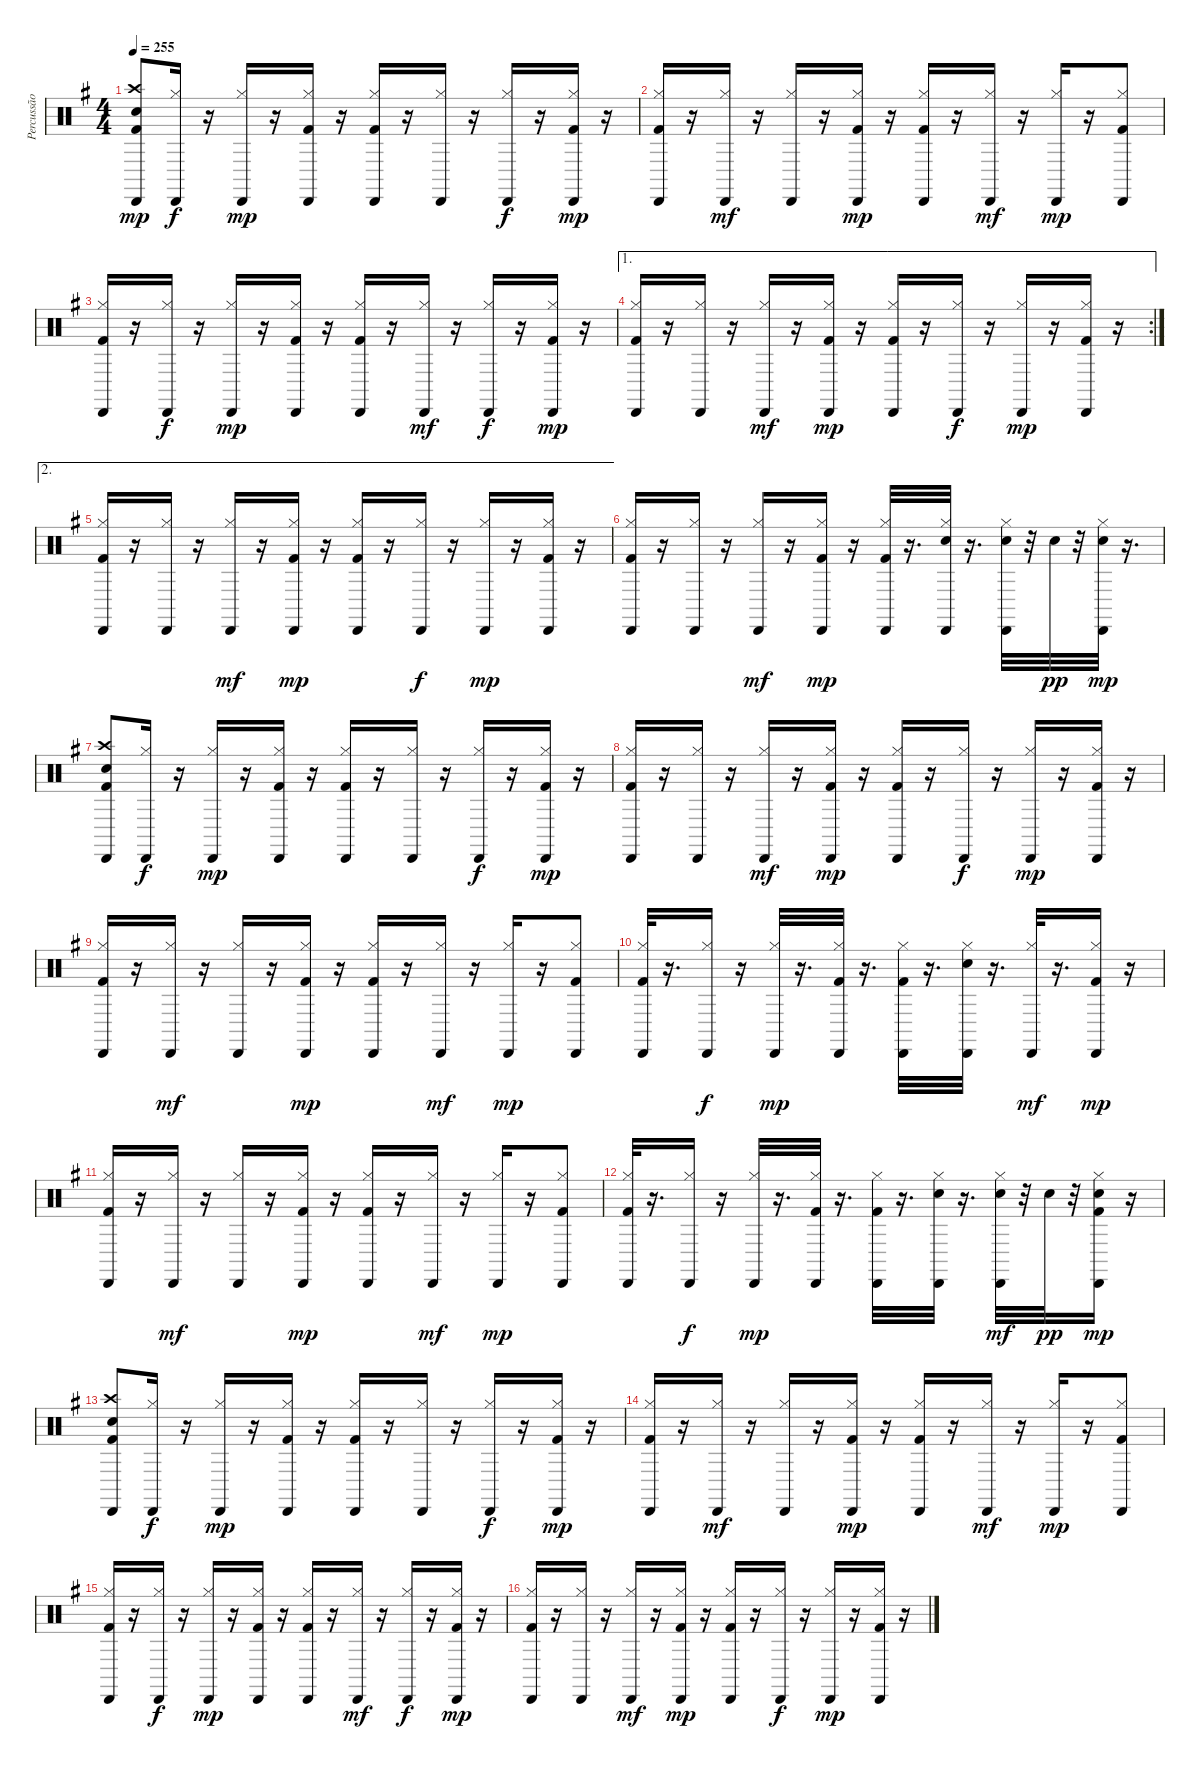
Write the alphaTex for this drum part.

\track ("Percussão" "Percussão") {instrument percussion}
\staff {score}
\articulation defaults
\ts (4 4)
\tempo 255
\clef neutral
\ks g
("Electric Snare (hit)" "Crash high (hit)" "Kick (hit) 2" "Cabasa (hit)").8{dy mp} ("Hi-Hat (closed)" "Cabasa (hit)").16{dy f} r.16 ("Hi-Hat (closed)" "Cabasa (hit)").16{dy mp} r.16 ("Kick (hit) 2" "Hi-Hat (closed)" "Cabasa (hit)").16 r.16 ("Kick (hit) 2" "Hi-Hat (closed)" "Cabasa (hit)").16 r.16 ("Hi-Hat (closed)" "Cabasa (hit)").16 r.16 ("Hi-Hat (closed)" "Cabasa (hit)").16{dy f} r.16 ("Kick (hit) 2" "Hi-Hat (closed)" "Cabasa (hit)").16{dy mp} r.16 |
("Kick (hit) 2" "Hi-Hat (closed)" "Cabasa (hit)").16 r.16 ("Hi-Hat (closed)" "Cabasa (hit)").16{dy mf} r.16 ("Hi-Hat (closed)" "Cabasa (hit)").16 r.16 ("Kick (hit) 2" "Hi-Hat (closed)" "Cabasa (hit)").16{dy mp} r.16 ("Kick (hit) 2" "Hi-Hat (closed)" "Cabasa (hit)").16 r.16 ("Hi-Hat (closed)" "Cabasa (hit)").16{dy mf} r.16 ("Hi-Hat (closed)" "Cabasa (hit)").16{dy mp} r.16 ("Kick (hit) 2" "Hi-Hat (closed)" "Cabasa (hit)").8 |
("Kick (hit) 2" "Hi-Hat (closed)" "Cabasa (hit)").16 r.16 ("Hi-Hat (closed)" "Cabasa (hit)").16{dy f} r.16 ("Hi-Hat (closed)" "Cabasa (hit)").16{dy mp} r.16 ("Kick (hit) 2" "Hi-Hat (closed)" "Cabasa (hit)").16 r.16 ("Kick (hit) 2" "Hi-Hat (closed)" "Cabasa (hit)").16 r.16 ("Hi-Hat (closed)" "Cabasa (hit)").16{dy mf} r.16 ("Hi-Hat (closed)" "Cabasa (hit)").16{dy f} r.16 ("Kick (hit) 2" "Hi-Hat (closed)" "Cabasa (hit)").16{dy mp} r.16 |
\ae 1
\rc 2
("Kick (hit) 2" "Hi-Hat (closed)" "Cabasa (hit)").16 r.16 ("Hi-Hat (closed)" "Cabasa (hit)").16 r.16 ("Hi-Hat (closed)" "Cabasa (hit)").16{dy mf} r.16 ("Kick (hit) 2" "Hi-Hat (closed)" "Cabasa (hit)").16{dy mp} r.16 ("Kick (hit) 2" "Hi-Hat (closed)" "Cabasa (hit)").16 r.16 ("Hi-Hat (closed)" "Cabasa (hit)").16{dy f} r.16 ("Hi-Hat (closed)" "Cabasa (hit)").16{dy mp} r.16 ("Kick (hit) 2" "Hi-Hat (closed)" "Cabasa (hit)").16 r.16 |
\ae 2
("Kick (hit) 2" "Hi-Hat (closed)" "Cabasa (hit)").16 r.16 ("Hi-Hat (closed)" "Cabasa (hit)").16 r.16 ("Hi-Hat (closed)" "Cabasa (hit)").16{dy mf} r.16 ("Kick (hit) 2" "Hi-Hat (closed)" "Cabasa (hit)").16{dy mp} r.16 ("Kick (hit) 2" "Hi-Hat (closed)" "Cabasa (hit)").16 r.16 ("Hi-Hat (closed)" "Cabasa (hit)").16{dy f} r.16 ("Hi-Hat (closed)" "Cabasa (hit)").16{dy mp} r.16 ("Kick (hit) 2" "Hi-Hat (closed)" "Cabasa (hit)").16 r.16 |
("Kick (hit) 2" "Hi-Hat (closed)" "Cabasa (hit)").16 r.16 ("Hi-Hat (closed)" "Cabasa (hit)").16 r.16 ("Hi-Hat (closed)" "Cabasa (hit)").16{dy mf} r.16 ("Kick (hit) 2" "Hi-Hat (closed)" "Cabasa (hit)").16{dy mp} r.16 ("Kick (hit) 2" "Hi-Hat (closed)" "Cabasa (hit)").32 r.16{d} ("Snare (hit) 2" "Hi-Hat (closed)" "Cabasa (hit)").32 r.16{d} ("Electric Snare (hit)" "Hi-Hat (closed)" "Cabasa (hit)").32 r.32 "Snare (hit) 2".32{dy pp} r.32 ("Electric Snare (hit)" "Hi-Hat (closed)" "Cabasa (hit)").32{dy mp} r.16{d} |
("Electric Snare (hit)" "Crash high (hit)" "Kick (hit) 2" "Cabasa (hit)").8 ("Hi-Hat (closed)" "Cabasa (hit)").16{dy f} r.16 ("Hi-Hat (closed)" "Cabasa (hit)").16{dy mp} r.16 ("Kick (hit) 2" "Hi-Hat (closed)" "Cabasa (hit)").16 r.16 ("Kick (hit) 2" "Hi-Hat (closed)" "Cabasa (hit)").16 r.16 ("Hi-Hat (closed)" "Cabasa (hit)").16 r.16 ("Hi-Hat (closed)" "Cabasa (hit)").16{dy f} r.16 ("Kick (hit) 2" "Hi-Hat (closed)" "Cabasa (hit)").16{dy mp} r.16 |
("Kick (hit) 2" "Hi-Hat (closed)" "Cabasa (hit)").16 r.16 ("Hi-Hat (closed)" "Cabasa (hit)").16 r.16 ("Hi-Hat (closed)" "Cabasa (hit)").16{dy mf} r.16 ("Kick (hit) 2" "Hi-Hat (closed)" "Cabasa (hit)").16{dy mp} r.16 ("Kick (hit) 2" "Hi-Hat (closed)" "Cabasa (hit)").16 r.16 ("Hi-Hat (closed)" "Cabasa (hit)").16{dy f} r.16 ("Hi-Hat (closed)" "Cabasa (hit)").16{dy mp} r.16 ("Kick (hit) 2" "Hi-Hat (closed)" "Cabasa (hit)").16 r.16 |
("Kick (hit) 2" "Hi-Hat (closed)" "Cabasa (hit)").16 r.16 ("Hi-Hat (closed)" "Cabasa (hit)").16{dy mf} r.16 ("Hi-Hat (closed)" "Cabasa (hit)").16 r.16 ("Kick (hit) 2" "Hi-Hat (closed)" "Cabasa (hit)").16{dy mp} r.16 ("Kick (hit) 2" "Hi-Hat (closed)" "Cabasa (hit)").16 r.16 ("Hi-Hat (closed)" "Cabasa (hit)").16{dy mf} r.16 ("Hi-Hat (closed)" "Cabasa (hit)").16{dy mp} r.16 ("Kick (hit) 2" "Hi-Hat (closed)" "Cabasa (hit)").8 |
("Kick (hit) 2" "Hi-Hat (closed)" "Cabasa (hit)").32 r.16{d} ("Hi-Hat (closed)" "Cabasa (hit)").16{dy f} r.16 ("Hi-Hat (closed)" "Cabasa (hit)").32{dy mp} r.16{d} ("Kick (hit) 2" "Hi-Hat (closed)" "Cabasa (hit)").32 r.16{d} ("Kick (hit) 2" "Hi-Hat (closed)" "Cabasa (hit)").32 r.16{d} ("Electric Snare (hit)" "Hi-Hat (closed)" "Cabasa (hit)").32 r.16{d} ("Hi-Hat (closed)" "Cabasa (hit)").32{dy mf} r.16{d} ("Kick (hit) 2" "Hi-Hat (closed)" "Cabasa (hit)").16{dy mp} r.16 |
("Kick (hit) 2" "Hi-Hat (closed)" "Cabasa (hit)").16 r.16 ("Hi-Hat (closed)" "Cabasa (hit)").16{dy mf} r.16 ("Hi-Hat (closed)" "Cabasa (hit)").16 r.16 ("Kick (hit) 2" "Hi-Hat (closed)" "Cabasa (hit)").16{dy mp} r.16 ("Kick (hit) 2" "Hi-Hat (closed)" "Cabasa (hit)").16 r.16 ("Hi-Hat (closed)" "Cabasa (hit)").16{dy mf} r.16 ("Hi-Hat (closed)" "Cabasa (hit)").16{dy mp} r.16 ("Kick (hit) 2" "Hi-Hat (closed)" "Cabasa (hit)").8 |
("Kick (hit) 2" "Hi-Hat (closed)" "Cabasa (hit)").32 r.16{d} ("Hi-Hat (closed)" "Cabasa (hit)").16{dy f} r.16 ("Hi-Hat (closed)" "Cabasa (hit)").32{dy mp} r.16{d} ("Kick (hit) 2" "Hi-Hat (closed)" "Cabasa (hit)").32 r.16{d} ("Kick (hit) 2" "Hi-Hat (closed)" "Cabasa (hit)").32 r.16{d} ("Electric Snare (hit)" "Hi-Hat (closed)" "Cabasa (hit)").32 r.16{d} ("Electric Snare (hit)" "Hi-Hat (closed)" "Cabasa (hit)").32{dy mf} r.32 "Snare (hit) 2".32{dy pp} r.32 ("Electric Snare (hit)" "Kick (hit) 2" "Hi-Hat (closed)" "Cabasa (hit)").16{dy mp} r.16 |
("Electric Snare (hit)" "Crash high (hit)" "Kick (hit) 2" "Cabasa (hit)").8 ("Hi-Hat (closed)" "Cabasa (hit)").16{dy f} r.16 ("Hi-Hat (closed)" "Cabasa (hit)").16{dy mp} r.16 ("Kick (hit) 2" "Hi-Hat (closed)" "Cabasa (hit)").16 r.16 ("Kick (hit) 2" "Hi-Hat (closed)" "Cabasa (hit)").16 r.16 ("Hi-Hat (closed)" "Cabasa (hit)").16 r.16 ("Hi-Hat (closed)" "Cabasa (hit)").16{dy f} r.16 ("Kick (hit) 2" "Hi-Hat (closed)" "Cabasa (hit)").16{dy mp} r.16 |
("Kick (hit) 2" "Hi-Hat (closed)" "Cabasa (hit)").16 r.16 ("Hi-Hat (closed)" "Cabasa (hit)").16{dy mf} r.16 ("Hi-Hat (closed)" "Cabasa (hit)").16 r.16 ("Kick (hit) 2" "Hi-Hat (closed)" "Cabasa (hit)").16{dy mp} r.16 ("Kick (hit) 2" "Hi-Hat (closed)" "Cabasa (hit)").16 r.16 ("Hi-Hat (closed)" "Cabasa (hit)").16{dy mf} r.16 ("Hi-Hat (closed)" "Cabasa (hit)").16{dy mp} r.16 ("Kick (hit) 2" "Hi-Hat (closed)" "Cabasa (hit)").8 |
("Kick (hit) 2" "Hi-Hat (closed)" "Cabasa (hit)").16 r.16 ("Hi-Hat (closed)" "Cabasa (hit)").16{dy f} r.16 ("Hi-Hat (closed)" "Cabasa (hit)").16{dy mp} r.16 ("Kick (hit) 2" "Hi-Hat (closed)" "Cabasa (hit)").16 r.16 ("Kick (hit) 2" "Hi-Hat (closed)" "Cabasa (hit)").16 r.16 ("Hi-Hat (closed)" "Cabasa (hit)").16{dy mf} r.16 ("Hi-Hat (closed)" "Cabasa (hit)").16{dy f} r.16 ("Kick (hit) 2" "Hi-Hat (closed)" "Cabasa (hit)").16{dy mp} r.16 |
("Kick (hit) 2" "Hi-Hat (closed)" "Cabasa (hit)").16 r.16 ("Hi-Hat (closed)" "Cabasa (hit)").16 r.16 ("Hi-Hat (closed)" "Cabasa (hit)").16{dy mf} r.16 ("Kick (hit) 2" "Hi-Hat (closed)" "Cabasa (hit)").16{dy mp} r.16 ("Kick (hit) 2" "Hi-Hat (closed)" "Cabasa (hit)").16 r.16 ("Hi-Hat (closed)" "Cabasa (hit)").16{dy f} r.16 ("Hi-Hat (closed)" "Cabasa (hit)").16{dy mp} r.16 ("Kick (hit) 2" "Hi-Hat (closed)" "Cabasa (hit)").16 r.16
